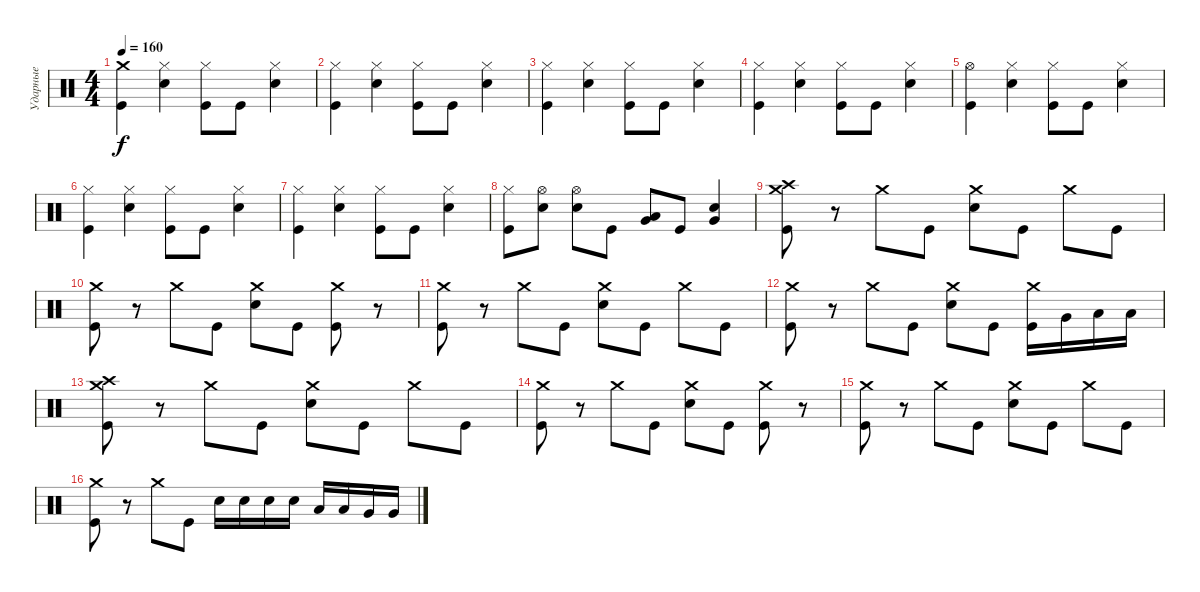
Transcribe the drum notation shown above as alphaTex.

\track ("Ударные" "Ударные") {instrument percussion}
\staff {score}
\articulation defaults
\ts (4 4)
\tempo 160
\clef neutral
\ks c
("Kick (hit)" "Crash medium (hit)").4{dy f} ("Electric Snare (hit)" "Hi-Hat (closed)").4 ("Kick (hit)" "Hi-Hat (closed)").8 "Kick (hit)".8 ("Electric Snare (hit)" "Hi-Hat (closed)").4 |
("Kick (hit)" "Hi-Hat (closed)").4 ("Electric Snare (hit)" "Hi-Hat (closed)").4 ("Kick (hit)" "Hi-Hat (closed)").8 "Kick (hit)".8 ("Electric Snare (hit)" "Hi-Hat (closed)").4 |
("Kick (hit)" "Hi-Hat (closed)").4 ("Electric Snare (hit)" "Hi-Hat (closed)").4 ("Kick (hit)" "Hi-Hat (closed)").8 "Kick (hit)".8 ("Electric Snare (hit)" "Hi-Hat (closed)").4 |
("Kick (hit)" "Hi-Hat (closed)").4 ("Electric Snare (hit)" "Hi-Hat (closed)").4 ("Kick (hit)" "Hi-Hat (closed)").8 "Kick (hit)".8 ("Electric Snare (hit)" "Hi-Hat (closed)").4 |
("Kick (hit)" "Hi-Hat (open)").4 ("Electric Snare (hit)" "Hi-Hat (closed)").4 ("Kick (hit)" "Hi-Hat (closed)").8 "Kick (hit)".8 ("Electric Snare (hit)" "Hi-Hat (closed)").4 |
("Kick (hit)" "Hi-Hat (closed)").4 ("Electric Snare (hit)" "Hi-Hat (closed)").4 ("Kick (hit)" "Hi-Hat (closed)").8 "Kick (hit)".8 ("Electric Snare (hit)" "Hi-Hat (closed)").4 |
("Kick (hit)" "Hi-Hat (closed)").4 ("Electric Snare (hit)" "Hi-Hat (closed)").4 ("Kick (hit)" "Hi-Hat (closed)").8 "Kick (hit)".8 ("Electric Snare (hit)" "Hi-Hat (closed)").4 |
("Kick (hit)" "Hi-Hat (closed)").8 ("Electric Snare (hit)" "Hi-Hat (open)").8 ("Electric Snare (hit)" "Hi-Hat (open)").8 "Kick (hit)".8 ("Very Low Tom (hit)" "Low Floor Tom (hit)").8 "Kick (hit)".8 ("Electric Snare (hit)" "Very Low Tom (hit)").4 |
("Kick (hit)" "Crash medium (hit)" "Crash high (hit)").8 r.8 "Crash medium (hit)".8 "Kick (hit)".8 ("Electric Snare (hit)" "Crash medium (hit)").8 "Kick (hit)".8 "Crash medium (hit)".8 "Kick (hit)".8 |
("Kick (hit)" "Crash medium (hit)").8 r.8 "Crash medium (hit)".8 "Kick (hit)".8 ("Electric Snare (hit)" "Crash medium (hit)").8 "Kick (hit)".8 ("Kick (hit)" "Crash medium (hit)").8 r.8 |
("Kick (hit)" "Crash medium (hit)").8 r.8 "Crash medium (hit)".8 "Kick (hit)".8 ("Electric Snare (hit)" "Crash medium (hit)").8 "Kick (hit)".8 "Crash medium (hit)".8 "Kick (hit)".8 |
("Kick (hit)" "Crash medium (hit)").8 r.8 "Crash medium (hit)".8 "Kick (hit)".8 ("Electric Snare (hit)" "Crash medium (hit)").8 "Kick (hit)".8 ("Kick (hit)" "Crash medium (hit)").16 "Very Low Tom (hit)".16 "Low Tom (hit)".16 "Low Tom (hit)".16 |
("Kick (hit)" "Crash medium (hit)" "Crash high (hit)").8 r.8 "Crash medium (hit)".8 "Kick (hit)".8 ("Electric Snare (hit)" "Crash medium (hit)").8 "Kick (hit)".8 "Crash medium (hit)".8 "Kick (hit)".8 |
("Kick (hit)" "Crash medium (hit)").8 r.8 "Crash medium (hit)".8 "Kick (hit)".8 ("Electric Snare (hit)" "Crash medium (hit)").8 "Kick (hit)".8 ("Kick (hit)" "Crash medium (hit)").8 r.8 |
("Kick (hit)" "Crash medium (hit)").8 r.8 "Crash medium (hit)".8 "Kick (hit)".8 ("Electric Snare (hit)" "Crash medium (hit)").8 "Kick (hit)".8 "Crash medium (hit)".8 "Kick (hit)".8 |
("Kick (hit)" "Crash medium (hit)").8 r.8 "Crash medium (hit)".8 "Kick (hit)".8 "Electric Snare (hit)".16 "Electric Snare (hit)".16 "Electric Snare (hit)".16 "Electric Snare (hit)".16 "Low Tom (hit)".16 "Low Tom (hit)".16 "Very Low Tom (hit)".16 "Very Low Tom (hit)".16
